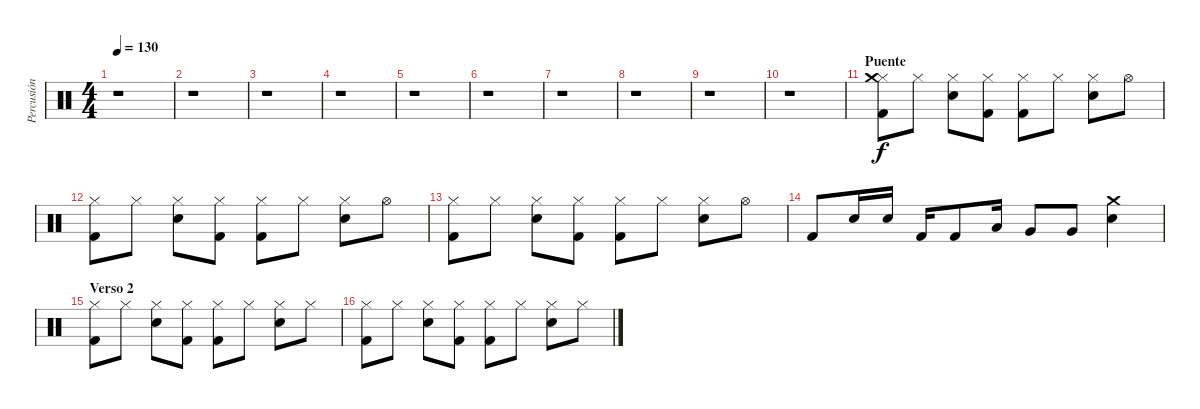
\track ("Percusión" "Percusión") {instrument percussion}
\staff {score}
\articulation defaults
\ts (4 4)
\tempo 130
\clef neutral
\ks c
r.1{dy f} |
r.1 |
r.1 |
r.1 |
r.1 |
r.1 |
r.1 |
r.1 |
r.1 |
r.1 |
\section ("" "Puente")
("Hi-Hat (closed)" "Kick (hit) 2" "Crash medium (hit)").8 "Hi-Hat (closed)".8 ("Hi-Hat (closed)" "Electric Snare (hit)").8 ("Hi-Hat (closed)" "Kick (hit) 2").8 ("Hi-Hat (closed)" "Kick (hit) 2").8 "Hi-Hat (closed)".8 ("Hi-Hat (closed)" "Electric Snare (hit)").8 "Hi-Hat (open)".8 |
("Hi-Hat (closed)" "Kick (hit) 2").8 "Hi-Hat (closed)".8 ("Hi-Hat (closed)" "Electric Snare (hit)").8 ("Hi-Hat (closed)" "Kick (hit) 2").8 ("Hi-Hat (closed)" "Kick (hit) 2").8 "Hi-Hat (closed)".8 ("Hi-Hat (closed)" "Electric Snare (hit)").8 "Hi-Hat (open)".8 |
("Hi-Hat (closed)" "Kick (hit) 2").8 "Hi-Hat (closed)".8 ("Hi-Hat (closed)" "Electric Snare (hit)").8 ("Hi-Hat (closed)" "Kick (hit) 2").8 ("Hi-Hat (closed)" "Kick (hit) 2").8 "Hi-Hat (closed)".8 ("Hi-Hat (closed)" "Electric Snare (hit)").8 "Hi-Hat (open)".8 |
"Kick (hit) 2".8 "Electric Snare (hit)".16 "Electric Snare (hit)".16 "Kick (hit) 2".16 "Kick (hit) 2".8 "Low Tom (hit)".16 "Very Low Tom (hit)".8 "Very Low Tom (hit)".8 ("Electric Snare (hit)" "Crash medium (hit)").4 |
\section ("" "Verso 2")
("Hi-Hat (closed)" "Kick (hit) 2").8 "Hi-Hat (closed)".8 ("Hi-Hat (closed)" "Electric Snare (hit)").8 ("Hi-Hat (closed)" "Kick (hit) 2").8 ("Hi-Hat (closed)" "Kick (hit) 2").8 "Hi-Hat (closed)".8 ("Hi-Hat (closed)" "Electric Snare (hit)").8 "Hi-Hat (closed)".8 |
("Hi-Hat (closed)" "Kick (hit) 2").8 "Hi-Hat (closed)".8 ("Hi-Hat (closed)" "Electric Snare (hit)").8 ("Hi-Hat (closed)" "Kick (hit) 2").8 ("Hi-Hat (closed)" "Kick (hit) 2").8 "Hi-Hat (closed)".8 ("Hi-Hat (closed)" "Electric Snare (hit)").8 "Hi-Hat (closed)".8
